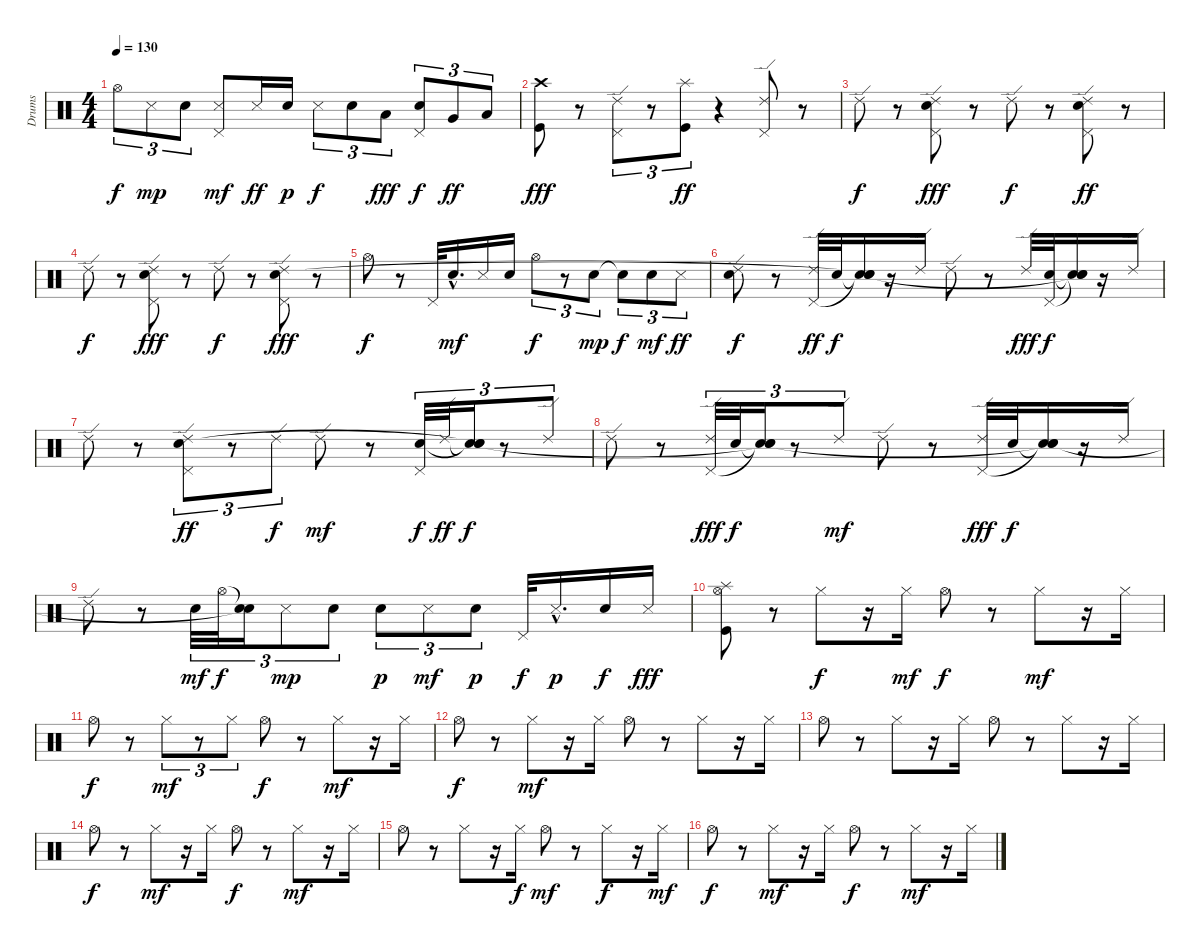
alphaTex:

\track ("Drums" "Drums") {instrument percussion}
\staff {score}
\articulation defaults
\ts (4 4)
\tempo 130
\clef neutral
\ks c "Hi-Hat (open)".8{tu (3 2) dy f} "Snare (side stick) 3".8{tu (3 2) dy mp} "Snare (hit) 2".8{tu (3 2)}
("Pedal Hi-Hat (hit)" "Snare (side stick) 3").8{dy mf} "Snare (side stick) 3".16{dy ff} "Snare (hit) 2".16{dy p} "Snare (side stick) 3".8{tu (3 2) dy f} "Snare (hit) 2".8{tu (3 2)} "Low Tom (hit)".8{tu (3 2) dy fff} ("Pedal Hi-Hat (hit)" "Snare (hit) 2").8{tu (3 2) dy f} "Very Low Tom (hit)".8{tu (3 2) dy ff} "Low Floor Tom (hit)".8{tu (3 2)} |
("Crash high (hit)" "Kick (hit)").8{dy fff} r.8 ("Ride (edge) 2" "Pedal Hi-Hat (hit)").8{tu (3 2)} r.8{tu (3 2)} ("Splash (hit)" "Kick (hit)").8{tu (3 2) dy ff} r.4 ("Ride (edge) 2" "Pedal Hi-Hat (hit)").8 r.8 |
"Ride (edge) 2".8{dy f} r.8 ("Ride (edge) 2" "Pedal Hi-Hat (hit)" "Snare (hit) 2").8{dy fff} r.8 "Ride (edge) 2".8{dy f} r.8 ("Ride (edge) 2" "Pedal Hi-Hat (hit)" "Snare (hit) 2").8{dy ff} r.8 |
"Ride (edge) 2".8{dy f} r.8 ("Ride (edge) 2" "Pedal Hi-Hat (hit)" "Snare (hit) 2").8{dy fff} r.8 "Ride (edge) 2".8{dy f} r.8 ("Ride (edge) 2" "Pedal Hi-Hat (hit)" "Snare (hit) 2").8{dy fff} r.8 |
"Hi-Hat (open)".8{dy f} r.8 "Pedal Hi-Hat (hit)".32 "Snare (hit) 2"{hac}.16{d dy mf} "Snare (side stick) 3".16 "Snare (hit) 2".16 "Hi-Hat (open)".8{tu (3 2) dy f} r.8{tu (3 2)} "Snare (hit) 2".8{tu (3 2) dy mp} "Snare (hit)"{t}.8{tu (3 2) dy f} "Snare (hit) 2".8{tu (3 2) dy mf} "Snare (side stick) 3".8{tu (3 2) dy ff} |
("Ride (edge) 2" "Snare (hit) 2").8{dy f} r.8 ("Ride (edge) 2" "Pedal Hi-Hat (hit)").32{dy ff} "Snare (hit) 2".32{dy f} ("Snare (hit)"{t} "Snare (hit)"{t} "Snare (hit)"{t}).16 r.16 "Ride (edge) 2".16 "Ride (edge) 2".8 r.8 "Ride (edge) 2".32{dy fff} ("Pedal Hi-Hat (hit)" "Snare (hit) 2").32{dy f} ("Snare (hit)"{t} "Snare (hit)"{t} "Snare (hit)"{t}).16 r.16 "Ride (edge) 2".16 |
"Ride (edge) 2".8 r.8 ("Ride (edge) 2" "Pedal Hi-Hat (hit)" "Snare (hit) 2").8{tu (3 2) dy ff} r.8{tu (3 2)} "Ride (edge) 2".8{tu (3 2) dy f} "Ride (edge) 2".8{dy mf} r.8 ("Pedal Hi-Hat (hit)" "Snare (hit) 2").32{tu (3 2) dy f} "Ride (edge) 2".32{tu (3 2) dy ff} ("Snare (hit)"{t} "Snare (hit)"{t} "Snare (hit)"{t}).16{tu (3 2) dy f} r.8{tu (3 2)} "Ride (edge) 2".8{tu (3 2)} |
"Ride (edge) 2".8 r.8 ("Ride (edge) 2" "Pedal Hi-Hat (hit)").32{tu (3 2) dy fff} "Snare (hit) 2".32{tu (3 2) dy f} ("Snare (hit)"{t} "Snare (hit)"{t} "Snare (hit)"{t}).16{tu (3 2)} r.8{tu (3 2)} "Ride (edge) 2".8{tu (3 2) dy mf} "Ride (edge) 2".8 r.8 ("Ride (edge) 2" "Pedal Hi-Hat (hit)").32{dy fff} "Snare (hit) 2".32{dy f} ("Snare (hit)"{t} "Snare (hit)"{t} "Snare (hit)"{t}).16 r.16 "Ride (edge) 2".16 |
"Ride (edge) 2".8 r.8 "Snare (hit) 2".32{tu (3 2) dy mf} "Hi-Hat (open)".32{tu (3 2) dy f} ("Snare (hit)"{t} "Snare (hit)"{t}).16{tu (3 2)} "Snare (side stick) 3".8{tu (3 2) dy mp} "Snare (hit) 2".8{tu (3 2)} "Snare (hit) 2".8{tu (3 2) dy p} "Snare (side stick) 3".8{tu (3 2) dy mf} "Snare (hit) 2".8{tu (3 2) dy p} "Pedal Hi-Hat (hit)".32{dy f} "Snare (side stick) 3"{hac}.16{d dy p} "Snare (hit) 2".16{dy f} "Snare (side stick) 3".16{dy fff} |
("Splash (hit)" "Hi-Hat (open)" "Kick (hit)").8 r.8 "Hi-Hat (closed)".8{dy f} r.16 "Hi-Hat (closed)".16{dy mf} "Hi-Hat (open)".8{dy f} r.8 "Hi-Hat (closed)".8{dy mf} r.16 "Hi-Hat (closed)".16 |
"Hi-Hat (open)".8{dy f} r.8 "Hi-Hat (closed)".8{tu (3 2) dy mf} r.8{tu (3 2)} "Hi-Hat (closed)".8{tu (3 2)} "Hi-Hat (open)".8{dy f} r.8 "Hi-Hat (closed)".8{dy mf} r.16 "Hi-Hat (closed)".16 |
"Hi-Hat (open)".8{dy f} r.8 "Hi-Hat (closed)".8{dy mf} r.16 "Hi-Hat (closed)".16 "Hi-Hat (open)".8 r.8 "Hi-Hat (closed)".8 r.16 "Hi-Hat (closed)".16 |
"Hi-Hat (open)".8 r.8 "Hi-Hat (closed)".8 r.16 "Hi-Hat (closed)".16 "Hi-Hat (open)".8 r.8 "Hi-Hat (closed)".8 r.16 "Hi-Hat (closed)".16 |
"Hi-Hat (open)".8{dy f} r.8 "Hi-Hat (closed)".8{dy mf} r.16 "Hi-Hat (closed)".16 "Hi-Hat (open)".8{dy f} r.8 "Hi-Hat (closed)".8{dy mf} r.16 "Hi-Hat (closed)".16 |
"Hi-Hat (open)".8 r.8 "Hi-Hat (closed)".8 r.16 "Hi-Hat (closed)".16{dy f} "Hi-Hat (open)".8{dy mf} r.8 "Hi-Hat (closed)".8{dy f} r.16 "Hi-Hat (closed)".16{dy mf} |
"Hi-Hat (open)".8{dy f} r.8 "Hi-Hat (closed)".8{dy mf} r.16 "Hi-Hat (closed)".16 "Hi-Hat (open)".8{dy f} r.8 "Hi-Hat (closed)".8{dy mf} r.16 "Hi-Hat (closed)".16
